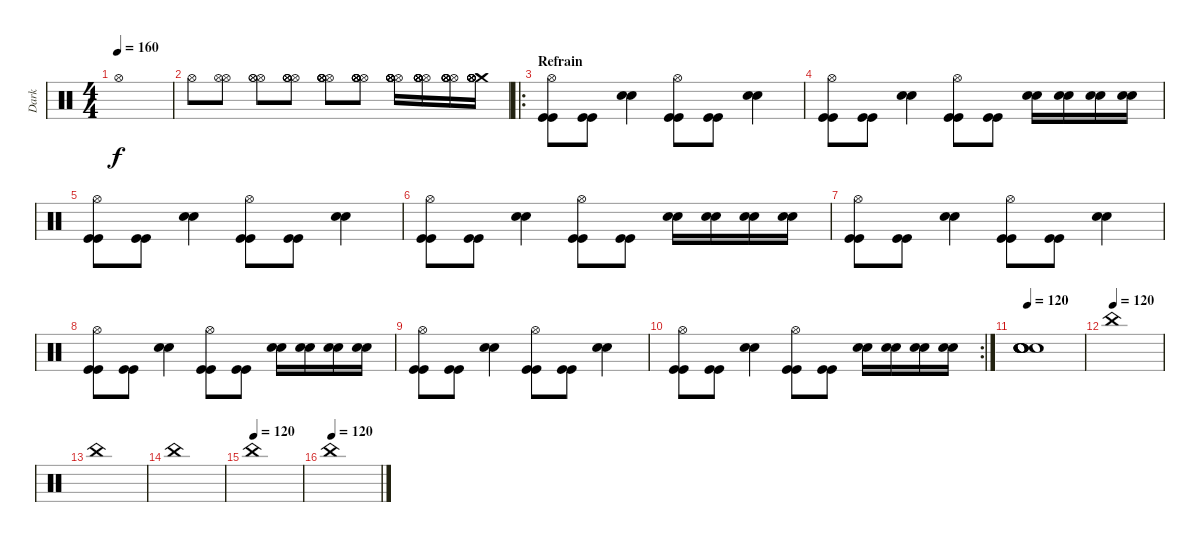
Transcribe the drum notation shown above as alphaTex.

\track ("Dark" "Dark") {instrument percussion}
\staff {score}
\articulation defaults
\ts (4 4)
\tempo 160
\clef neutral
\ks c "Hi-Hat (open)".1{dy f}
|
"Hi-Hat (open)".8 ("Hi-Hat (open)" "Hi-Hat (open)").8 ("Hi-Hat (open)" "Hi-Hat (open)" "Hi-Hat (open)").8 ("Hi-Hat (open)" "Hi-Hat (open)" "Hi-Hat (open)" "Hi-Hat (open)").8 ("Hi-Hat (open)" "Hi-Hat (open)" "Hi-Hat (open)" "Hi-Hat (open)" "Hi-Hat (open)").8 ("Hi-Hat (open)" "Hi-Hat (open)" "Hi-Hat (open)" "Hi-Hat (open)" "Hi-Hat (open)" "Hi-Hat (open)").8 ("Hi-Hat (open)" "Hi-Hat (open)" "Hi-Hat (open)" "Hi-Hat (open)" "Hi-Hat (open)" "Hi-Hat (open)").16 ("Hi-Hat (open)" "Hi-Hat (open)" "Hi-Hat (open)" "Hi-Hat (open)" "Hi-Hat (open)" "Hi-Hat (open)").16 ("Hi-Hat (open)" "Hi-Hat (open)" "Hi-Hat (open)" "Hi-Hat (open)" "Hi-Hat (open)" "Hi-Hat (open)").16 ("Crash medium (hit)" "Hi-Hat (open)" "Hi-Hat (open)" "Hi-Hat (open)" "Hi-Hat (open)" "Hi-Hat (open)").16 |
\ro
\section ("" "Refrain")
("Hi-Hat (open)" "Kick (hit)" "Kick (hit)").8 ("Kick (hit)" "Kick (hit)").8 ("Snare (hit) 2" "Snare (hit) 2").4 ("Hi-Hat (open)" "Kick (hit)" "Kick (hit)").8 ("Kick (hit)" "Kick (hit)").8 ("Snare (hit) 2" "Snare (hit) 2").4 |
("Hi-Hat (open)" "Kick (hit)" "Kick (hit)").8 ("Kick (hit)" "Kick (hit)").8 ("Snare (hit) 2" "Snare (hit) 2").4 ("Hi-Hat (open)" "Kick (hit)" "Kick (hit)").8 ("Kick (hit)" "Kick (hit)").8 ("Snare (hit) 2" "Snare (hit) 2").16 ("Snare (hit) 2" "Snare (hit) 2").16 ("Snare (hit) 2" "Snare (hit) 2").16 ("Snare (hit) 2" "Snare (hit) 2").16 |
("Hi-Hat (open)" "Kick (hit)" "Kick (hit)").8 ("Kick (hit)" "Kick (hit)").8 ("Snare (hit) 2" "Snare (hit) 2").4 ("Hi-Hat (open)" "Kick (hit)" "Kick (hit)").8 ("Kick (hit)" "Kick (hit)").8 ("Snare (hit) 2" "Snare (hit) 2").4 |
("Hi-Hat (open)" "Kick (hit)" "Kick (hit)").8 ("Kick (hit)" "Kick (hit)").8 ("Snare (hit) 2" "Snare (hit) 2").4 ("Hi-Hat (open)" "Kick (hit)" "Kick (hit)").8 ("Kick (hit)" "Kick (hit)").8 ("Snare (hit) 2" "Snare (hit) 2").16 ("Snare (hit) 2" "Snare (hit) 2").16 ("Snare (hit) 2" "Snare (hit) 2").16 ("Snare (hit) 2" "Snare (hit) 2").16 |
("Hi-Hat (open)" "Kick (hit)" "Kick (hit)").8 ("Kick (hit)" "Kick (hit)").8 ("Snare (hit) 2" "Snare (hit) 2").4 ("Hi-Hat (open)" "Kick (hit)" "Kick (hit)").8 ("Kick (hit)" "Kick (hit)").8 ("Snare (hit) 2" "Snare (hit) 2").4 |
("Hi-Hat (open)" "Kick (hit)" "Kick (hit)").8 ("Kick (hit)" "Kick (hit)").8 ("Snare (hit) 2" "Snare (hit) 2").4 ("Hi-Hat (open)" "Kick (hit)" "Kick (hit)").8 ("Kick (hit)" "Kick (hit)").8 ("Snare (hit) 2" "Snare (hit) 2").16 ("Snare (hit) 2" "Snare (hit) 2").16 ("Snare (hit) 2" "Snare (hit) 2").16 ("Snare (hit) 2" "Snare (hit) 2").16 |
("Hi-Hat (open)" "Kick (hit)" "Kick (hit)").8 ("Kick (hit)" "Kick (hit)").8 ("Snare (hit) 2" "Snare (hit) 2").4 ("Hi-Hat (open)" "Kick (hit)" "Kick (hit)").8 ("Kick (hit)" "Kick (hit)").8 ("Snare (hit) 2" "Snare (hit) 2").4 |
\rc 2
("Hi-Hat (open)" "Kick (hit)" "Kick (hit)").8 ("Kick (hit)" "Kick (hit)").8 ("Snare (hit) 2" "Snare (hit) 2").4 ("Hi-Hat (open)" "Kick (hit)" "Kick (hit)").8 ("Kick (hit)" "Kick (hit)").8 ("Snare (hit) 2" "Snare (hit) 2").16 ("Snare (hit) 2" "Snare (hit) 2").16 ("Snare (hit) 2" "Snare (hit) 2").16 ("Snare (hit) 2" "Snare (hit) 2").16 |
\tempo 120
("Snare (hit) 2" "Snare (hit) 2" "Snare (hit) 2" "Snare (hit) 2" "Snare (hit) 2" "Snare (hit) 2").1 |
\tempo (120)
"China (hit)".1 |
"China (hit)".1 |
"China (hit)".1 |
\tempo (120)
"China (hit)".1 |
\tempo (120)
"China (hit)".1
